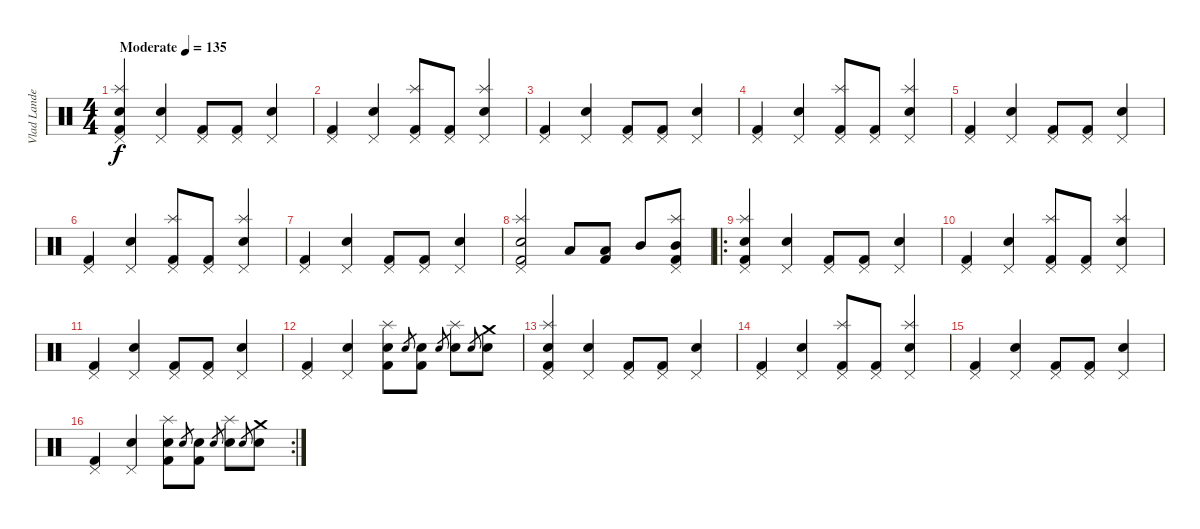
\track ("Vlad Landeros" "Vlad Lande") {instrument percussion}
\staff {score}
\articulation defaults
\ts (4 4)
\tempo (135 "Moderate")
\clef neutral
\ks c
("Pedal Hi-Hat (hit)" "Splash (hit)" "Snare (hit) 2" "Kick (hit) 2").4{dy f} ("Pedal Hi-Hat (hit)" "Snare (hit) 2").4 ("Pedal Hi-Hat (hit)" "Kick (hit) 2").8 ("Pedal Hi-Hat (hit)" "Kick (hit) 2").8 ("Pedal Hi-Hat (hit)" "Snare (hit) 2").4 |
("Pedal Hi-Hat (hit)" "Kick (hit) 2").4 ("Pedal Hi-Hat (hit)" "Snare (hit) 2").4 ("Pedal Hi-Hat (hit)" "Splash (hit)" "Kick (hit) 2").8 ("Pedal Hi-Hat (hit)" "Kick (hit) 2").8 ("Pedal Hi-Hat (hit)" "Splash (hit)" "Snare (hit) 2").4 |
("Pedal Hi-Hat (hit)" "Kick (hit) 2").4 ("Pedal Hi-Hat (hit)" "Snare (hit) 2").4 ("Pedal Hi-Hat (hit)" "Kick (hit) 2").8 ("Pedal Hi-Hat (hit)" "Kick (hit) 2").8 ("Pedal Hi-Hat (hit)" "Snare (hit) 2").4 |
("Pedal Hi-Hat (hit)" "Kick (hit) 2").4 ("Pedal Hi-Hat (hit)" "Snare (hit) 2").4 ("Pedal Hi-Hat (hit)" "Splash (hit)" "Kick (hit) 2").8 ("Pedal Hi-Hat (hit)" "Kick (hit) 2").8 ("Pedal Hi-Hat (hit)" "Splash (hit)" "Snare (hit) 2").4 |
("Pedal Hi-Hat (hit)" "Kick (hit) 2").4 ("Pedal Hi-Hat (hit)" "Snare (hit) 2").4 ("Pedal Hi-Hat (hit)" "Kick (hit) 2").8 ("Pedal Hi-Hat (hit)" "Kick (hit) 2").8 ("Pedal Hi-Hat (hit)" "Snare (hit) 2").4 |
("Pedal Hi-Hat (hit)" "Kick (hit) 2").4 ("Pedal Hi-Hat (hit)" "Snare (hit) 2").4 ("Pedal Hi-Hat (hit)" "Splash (hit)" "Kick (hit) 2").8 ("Pedal Hi-Hat (hit)" "Kick (hit) 2").8 ("Pedal Hi-Hat (hit)" "Splash (hit)" "Snare (hit) 2").4 |
("Pedal Hi-Hat (hit)" "Kick (hit) 2").4 ("Pedal Hi-Hat (hit)" "Snare (hit) 2").4 ("Pedal Hi-Hat (hit)" "Kick (hit) 2").8 ("Pedal Hi-Hat (hit)" "Kick (hit) 2").8 ("Pedal Hi-Hat (hit)" "Snare (hit) 2").4 |
("Pedal Hi-Hat (hit)" "Splash (hit)" "Snare (hit) 2" "Kick (hit) 2").2 "Low Tom (hit)".8 ("Low Tom (hit)" "Kick (hit) 2").8 "Mid Tom (hit)".8 ("Mid Tom (hit)" "Splash (hit)" "Pedal Hi-Hat (hit)" "Kick (hit) 2").8 |
\ro
("Pedal Hi-Hat (hit)" "Splash (hit)" "Snare (hit) 2" "Kick (hit) 2").4 ("Pedal Hi-Hat (hit)" "Snare (hit) 2").4 ("Pedal Hi-Hat (hit)" "Kick (hit) 2").8 ("Pedal Hi-Hat (hit)" "Kick (hit) 2").8 ("Pedal Hi-Hat (hit)" "Snare (hit) 2").4 |
("Pedal Hi-Hat (hit)" "Kick (hit) 2").4 ("Pedal Hi-Hat (hit)" "Snare (hit) 2").4 ("Pedal Hi-Hat (hit)" "Splash (hit)" "Kick (hit) 2").8 ("Pedal Hi-Hat (hit)" "Kick (hit) 2").8 ("Pedal Hi-Hat (hit)" "Splash (hit)" "Snare (hit) 2").4 |
("Pedal Hi-Hat (hit)" "Kick (hit) 2").4 ("Pedal Hi-Hat (hit)" "Snare (hit) 2").4 ("Pedal Hi-Hat (hit)" "Kick (hit) 2").8 ("Pedal Hi-Hat (hit)" "Kick (hit) 2").8 ("Pedal Hi-Hat (hit)" "Snare (hit) 2").4 |
("Pedal Hi-Hat (hit)" "Kick (hit) 2").4 ("Pedal Hi-Hat (hit)" "Snare (hit) 2").4 ("Splash (hit)" "Snare (hit) 2" "Kick (hit) 2").8 "Snare (hit) 2".8{gr} ("Snare (hit) 2" "Kick (hit) 2").8 "Snare (hit) 2".8{gr} ("Splash (hit)" "Snare (hit) 2").8 "Snare (hit) 2".8{gr} ("Crash medium (hit)" "Snare (hit) 2").8 |
("Pedal Hi-Hat (hit)" "Splash (hit)" "Snare (hit) 2" "Kick (hit) 2").4 ("Pedal Hi-Hat (hit)" "Snare (hit) 2").4 ("Pedal Hi-Hat (hit)" "Kick (hit) 2").8 ("Pedal Hi-Hat (hit)" "Kick (hit) 2").8 ("Pedal Hi-Hat (hit)" "Snare (hit) 2").4 |
("Pedal Hi-Hat (hit)" "Kick (hit) 2").4 ("Pedal Hi-Hat (hit)" "Snare (hit) 2").4 ("Pedal Hi-Hat (hit)" "Splash (hit)" "Kick (hit) 2").8 ("Pedal Hi-Hat (hit)" "Kick (hit) 2").8 ("Pedal Hi-Hat (hit)" "Splash (hit)" "Snare (hit) 2").4 |
("Pedal Hi-Hat (hit)" "Kick (hit) 2").4 ("Pedal Hi-Hat (hit)" "Snare (hit) 2").4 ("Pedal Hi-Hat (hit)" "Kick (hit) 2").8 ("Pedal Hi-Hat (hit)" "Kick (hit) 2").8 ("Pedal Hi-Hat (hit)" "Snare (hit) 2").4 |
\rc 2
("Pedal Hi-Hat (hit)" "Kick (hit) 2").4 ("Pedal Hi-Hat (hit)" "Snare (hit) 2").4 ("Splash (hit)" "Snare (hit) 2" "Kick (hit) 2").8 "Snare (hit) 2".8{gr} ("Snare (hit) 2" "Kick (hit) 2").8 "Snare (hit) 2".8{gr} ("Splash (hit)" "Snare (hit) 2").8 "Snare (hit) 2".8{gr} ("Crash medium (hit)" "Snare (hit) 2").8
